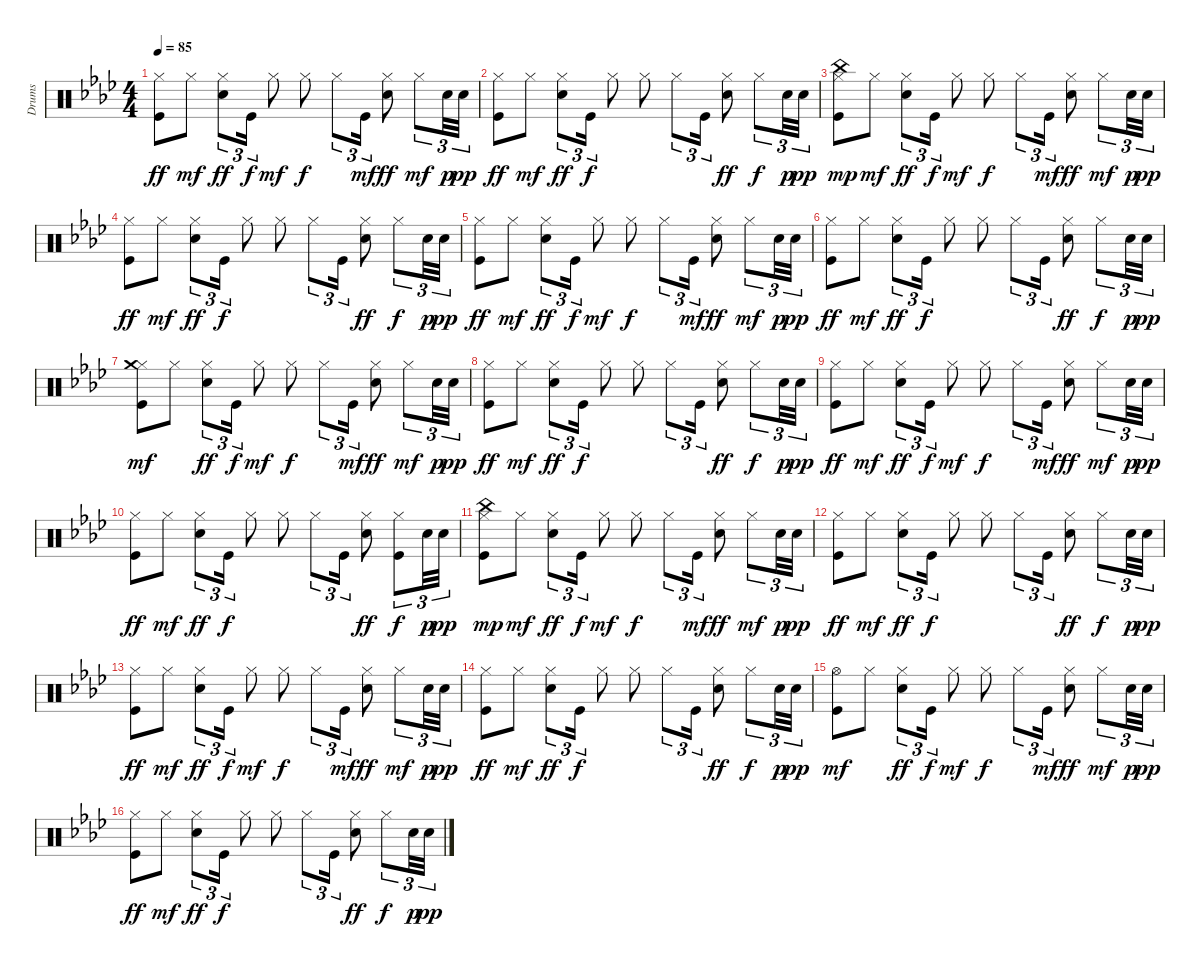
\track ("Drums" "Drums") {instrument percussion}
\staff {score}
\articulation defaults
\ts (4 4)
\tempo 85
\clef neutral
\ks ab
("Kick (hit)" "Hi-Hat (closed)").8{dy ff} "Hi-Hat (closed)".8{dy mf} ("Electric Snare (hit)" "Hi-Hat (closed)").8{tu (3 2) dy ff} "Kick (hit)".16{tu (3 2) dy f} "Hi-Hat (closed)".8{dy mf} "Hi-Hat (closed)".8{dy f} "Hi-Hat (closed)".8{tu (3 2)} "Kick (hit)".16{tu (3 2) dy mf} ("Electric Snare (hit)" "Hi-Hat (closed)").8{dy ff} "Hi-Hat (closed)".8{tu (3 2) dy mf} "Snare (hit) 2".32{tu (3 2) dy p} "Snare (hit) 2".32{tu (3 2) dy pp} |
("Kick (hit)" "Hi-Hat (closed)").8{dy ff} "Hi-Hat (closed)".8{dy mf} ("Electric Snare (hit)" "Hi-Hat (closed)").8{tu (3 2) dy ff} "Kick (hit)".16{tu (3 2) dy f} "Hi-Hat (closed)".8 "Hi-Hat (closed)".8 "Hi-Hat (closed)".8{tu (3 2)} "Kick (hit)".16{tu (3 2)} ("Electric Snare (hit)" "Hi-Hat (closed)").8{dy ff} "Hi-Hat (closed)".8{tu (3 2) dy f} "Snare (hit) 2".32{tu (3 2) dy p} "Snare (hit) 2".32{tu (3 2) dy pp} |
("Kick (hit)" "Hi-Hat (closed)" "China (hit)").8{dy mp} "Hi-Hat (closed)".8{dy mf} ("Electric Snare (hit)" "Hi-Hat (closed)").8{tu (3 2) dy ff} "Kick (hit)".16{tu (3 2) dy f} "Hi-Hat (closed)".8{dy mf} "Hi-Hat (closed)".8{dy f} "Hi-Hat (closed)".8{tu (3 2)} "Kick (hit)".16{tu (3 2) dy mf} ("Electric Snare (hit)" "Hi-Hat (closed)").8{dy ff} "Hi-Hat (closed)".8{tu (3 2) dy mf} "Snare (hit) 2".32{tu (3 2) dy p} "Snare (hit) 2".32{tu (3 2) dy pp} |
("Kick (hit)" "Hi-Hat (closed)").8{dy ff} "Hi-Hat (closed)".8{dy mf} ("Electric Snare (hit)" "Hi-Hat (closed)").8{tu (3 2) dy ff} "Kick (hit)".16{tu (3 2) dy f} "Hi-Hat (closed)".8 "Hi-Hat (closed)".8 "Hi-Hat (closed)".8{tu (3 2)} "Kick (hit)".16{tu (3 2)} ("Electric Snare (hit)" "Hi-Hat (closed)").8{dy ff} "Hi-Hat (closed)".8{tu (3 2) dy f} "Snare (hit) 2".32{tu (3 2) dy p} "Snare (hit) 2".32{tu (3 2) dy pp} |
("Kick (hit)" "Hi-Hat (closed)").8{dy ff} "Hi-Hat (closed)".8{dy mf} ("Electric Snare (hit)" "Hi-Hat (closed)").8{tu (3 2) dy ff} "Kick (hit)".16{tu (3 2) dy f} "Hi-Hat (closed)".8{dy mf} "Hi-Hat (closed)".8{dy f} "Hi-Hat (closed)".8{tu (3 2)} "Kick (hit)".16{tu (3 2) dy mf} ("Electric Snare (hit)" "Hi-Hat (closed)").8{dy ff} "Hi-Hat (closed)".8{tu (3 2) dy mf} "Snare (hit) 2".32{tu (3 2) dy p} "Snare (hit) 2".32{tu (3 2) dy pp} |
("Kick (hit)" "Hi-Hat (closed)").8{dy ff} "Hi-Hat (closed)".8{dy mf} ("Electric Snare (hit)" "Hi-Hat (closed)").8{tu (3 2) dy ff} "Kick (hit)".16{tu (3 2) dy f} "Hi-Hat (closed)".8 "Hi-Hat (closed)".8 "Hi-Hat (closed)".8{tu (3 2)} "Kick (hit)".16{tu (3 2)} ("Electric Snare (hit)" "Hi-Hat (closed)").8{dy ff} "Hi-Hat (closed)".8{tu (3 2) dy f} "Snare (hit) 2".32{tu (3 2) dy p} "Snare (hit) 2".32{tu (3 2) dy pp} |
("Kick (hit)" "Hi-Hat (closed)" "Crash medium (hit)").8{dy mf} "Hi-Hat (closed)".8 ("Electric Snare (hit)" "Hi-Hat (closed)").8{tu (3 2) dy ff} "Kick (hit)".16{tu (3 2) dy f} "Hi-Hat (closed)".8{dy mf} "Hi-Hat (closed)".8{dy f} "Hi-Hat (closed)".8{tu (3 2)} "Kick (hit)".16{tu (3 2) dy mf} ("Electric Snare (hit)" "Hi-Hat (closed)").8{dy ff} "Hi-Hat (closed)".8{tu (3 2) dy mf} "Snare (hit) 2".32{tu (3 2) dy p} "Snare (hit) 2".32{tu (3 2) dy pp} |
("Kick (hit)" "Hi-Hat (closed)").8{dy ff} "Hi-Hat (closed)".8{dy mf} ("Electric Snare (hit)" "Hi-Hat (closed)").8{tu (3 2) dy ff} "Kick (hit)".16{tu (3 2) dy f} "Hi-Hat (closed)".8 "Hi-Hat (closed)".8 "Hi-Hat (closed)".8{tu (3 2)} "Kick (hit)".16{tu (3 2)} ("Electric Snare (hit)" "Hi-Hat (closed)").8{dy ff} "Hi-Hat (closed)".8{tu (3 2) dy f} "Snare (hit) 2".32{tu (3 2) dy p} "Snare (hit) 2".32{tu (3 2) dy pp} |
("Kick (hit)" "Hi-Hat (closed)").8{dy ff} "Hi-Hat (closed)".8{dy mf} ("Electric Snare (hit)" "Hi-Hat (closed)").8{tu (3 2) dy ff} "Kick (hit)".16{tu (3 2) dy f} "Hi-Hat (closed)".8{dy mf} "Hi-Hat (closed)".8{dy f} "Hi-Hat (closed)".8{tu (3 2)} "Kick (hit)".16{tu (3 2) dy mf} ("Electric Snare (hit)" "Hi-Hat (closed)").8{dy ff} "Hi-Hat (closed)".8{tu (3 2) dy mf} "Snare (hit) 2".32{tu (3 2) dy p} "Snare (hit) 2".32{tu (3 2) dy pp} |
("Kick (hit)" "Hi-Hat (closed)").8{dy ff} "Hi-Hat (closed)".8{dy mf} ("Electric Snare (hit)" "Hi-Hat (closed)").8{tu (3 2) dy ff} "Kick (hit)".16{tu (3 2) dy f} "Hi-Hat (closed)".8 "Hi-Hat (closed)".8 "Hi-Hat (closed)".8{tu (3 2)} "Kick (hit)".16{tu (3 2)} ("Electric Snare (hit)" "Hi-Hat (closed)").8{dy ff} ("Kick (hit)" "Hi-Hat (closed)").8{tu (3 2) dy f} "Snare (hit) 2".32{tu (3 2) dy p} "Snare (hit) 2".32{tu (3 2) dy pp} |
("Kick (hit)" "Hi-Hat (closed)" "China (hit)").8{dy mp} "Hi-Hat (closed)".8{dy mf} ("Electric Snare (hit)" "Hi-Hat (closed)").8{tu (3 2) dy ff} "Kick (hit)".16{tu (3 2) dy f} "Hi-Hat (closed)".8{dy mf} "Hi-Hat (closed)".8{dy f} "Hi-Hat (closed)".8{tu (3 2)} "Kick (hit)".16{tu (3 2) dy mf} ("Electric Snare (hit)" "Hi-Hat (closed)").8{dy ff} "Hi-Hat (closed)".8{tu (3 2) dy mf} "Snare (hit) 2".32{tu (3 2) dy p} "Snare (hit) 2".32{tu (3 2) dy pp} |
("Kick (hit)" "Hi-Hat (closed)").8{dy ff} "Hi-Hat (closed)".8{dy mf} ("Electric Snare (hit)" "Hi-Hat (closed)").8{tu (3 2) dy ff} "Kick (hit)".16{tu (3 2) dy f} "Hi-Hat (closed)".8 "Hi-Hat (closed)".8 "Hi-Hat (closed)".8{tu (3 2)} "Kick (hit)".16{tu (3 2)} ("Electric Snare (hit)" "Hi-Hat (closed)").8{dy ff} "Hi-Hat (closed)".8{tu (3 2) dy f} "Snare (hit) 2".32{tu (3 2) dy p} "Snare (hit) 2".32{tu (3 2) dy pp} |
("Kick (hit)" "Hi-Hat (closed)").8{dy ff} "Hi-Hat (closed)".8{dy mf} ("Electric Snare (hit)" "Hi-Hat (closed)").8{tu (3 2) dy ff} "Kick (hit)".16{tu (3 2) dy f} "Hi-Hat (closed)".8{dy mf} "Hi-Hat (closed)".8{dy f} "Hi-Hat (closed)".8{tu (3 2)} "Kick (hit)".16{tu (3 2) dy mf} ("Electric Snare (hit)" "Hi-Hat (closed)").8{dy ff} "Hi-Hat (closed)".8{tu (3 2) dy mf} "Snare (hit) 2".32{tu (3 2) dy p} "Snare (hit) 2".32{tu (3 2) dy pp} |
("Kick (hit)" "Hi-Hat (closed)").8{dy ff} "Hi-Hat (closed)".8{dy mf} ("Electric Snare (hit)" "Hi-Hat (closed)").8{tu (3 2) dy ff} "Kick (hit)".16{tu (3 2) dy f} "Hi-Hat (closed)".8 "Hi-Hat (closed)".8 "Hi-Hat (closed)".8{tu (3 2)} "Kick (hit)".16{tu (3 2)} ("Electric Snare (hit)" "Hi-Hat (closed)").8{dy ff} "Hi-Hat (closed)".8{tu (3 2) dy f} "Snare (hit) 2".32{tu (3 2) dy p} "Snare (hit) 2".32{tu (3 2) dy pp} |
("Kick (hit)" "Hi-Hat (open)").8{dy mf} "Hi-Hat (closed)".8 ("Electric Snare (hit)" "Hi-Hat (closed)").8{tu (3 2) dy ff} "Kick (hit)".16{tu (3 2) dy f} "Hi-Hat (closed)".8{dy mf} "Hi-Hat (closed)".8{dy f} "Hi-Hat (closed)".8{tu (3 2)} "Kick (hit)".16{tu (3 2) dy mf} ("Electric Snare (hit)" "Hi-Hat (closed)").8{dy ff} "Hi-Hat (closed)".8{tu (3 2) dy mf} "Snare (hit) 2".32{tu (3 2) dy p} "Snare (hit) 2".32{tu (3 2) dy pp} |
("Kick (hit)" "Hi-Hat (closed)").8{dy ff} "Hi-Hat (closed)".8{dy mf} ("Electric Snare (hit)" "Hi-Hat (closed)").8{tu (3 2) dy ff} "Kick (hit)".16{tu (3 2) dy f} "Hi-Hat (closed)".8 "Hi-Hat (closed)".8 "Hi-Hat (closed)".8{tu (3 2)} "Kick (hit)".16{tu (3 2)} ("Electric Snare (hit)" "Hi-Hat (closed)").8{dy ff} "Hi-Hat (closed)".8{tu (3 2) dy f} "Snare (hit) 2".32{tu (3 2) dy p} "Snare (hit) 2".32{tu (3 2) dy pp}
